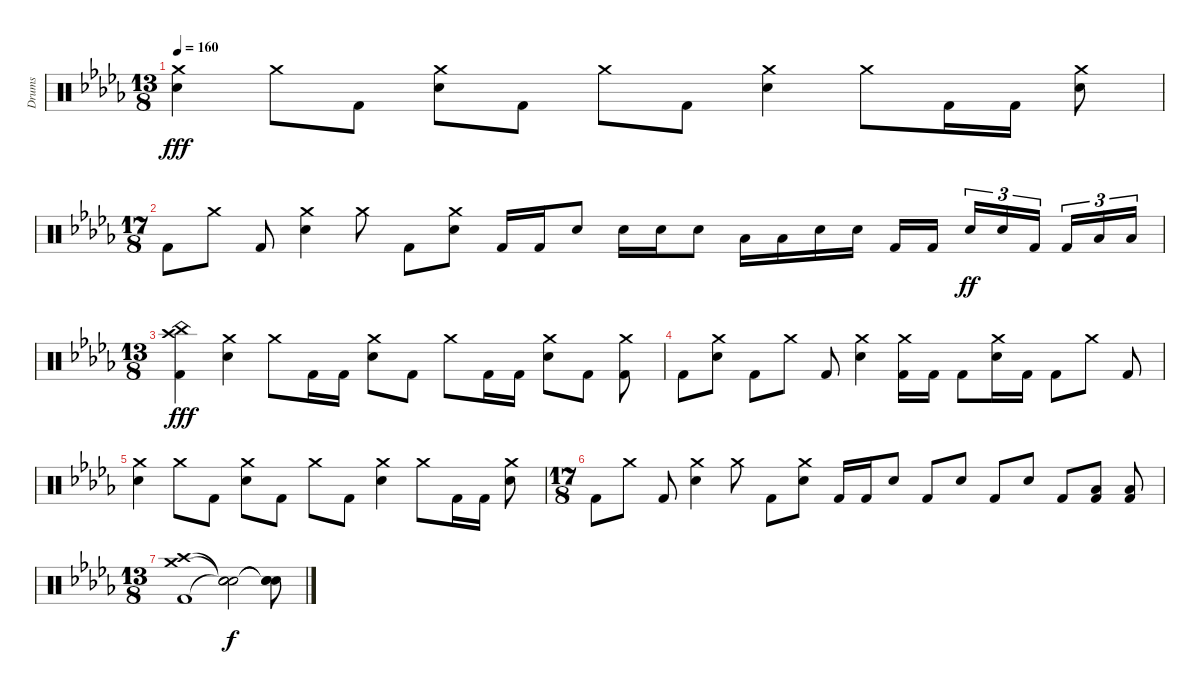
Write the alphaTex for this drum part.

\track ("Drums" "Drums") {instrument percussion}
\staff {score}
\articulation defaults
\ts (13 8)
\tempo 160
\clef neutral
\ks bbminor
("Crash medium (hit)" "Snare (hit) 2").4{dy fff} "Crash medium (hit)".8 "Kick (hit) 2".8 ("Crash medium (hit)" "Snare (hit) 2").8 "Kick (hit) 2".8 "Crash medium (hit)".8 "Kick (hit) 2".8 ("Crash medium (hit)" "Snare (hit) 2").4 "Crash medium (hit)".8 "Kick (hit) 2".16 "Kick (hit) 2".16 ("Crash medium (hit)" "Snare (hit) 2").8 |
\ts (17 8)
"Kick (hit) 2".8 "Crash medium (hit)".8 "Kick (hit) 2".8 ("Crash medium (hit)" "Snare (hit) 2").4 "Crash medium (hit)".8 "Kick (hit) 2".8 ("Crash medium (hit)" "Snare (hit) 2").8 "Kick (hit) 2".16 "Kick (hit) 2".16 "Snare (hit) 2".8 "Snare (hit) 2".16 "Snare (hit) 2".16 "Snare (hit) 2".8 "Low Floor Tom (hit)".16 "Low Floor Tom (hit)".16 "Snare (hit) 2".16 "Snare (hit) 2".16 "Kick (hit) 2".16 "Kick (hit) 2".16 "Snare (hit) 2".16{tu (3 2) dy ff} "Snare (hit) 2".16{tu (3 2)} "Kick (hit) 2".16{tu (3 2)} "Kick (hit) 2".16{tu (3 2)} "Low Floor Tom (hit)".16{tu (3 2)} "Low Floor Tom (hit)".16{tu (3 2)} |
\ts (13 8)
("Crash high (hit)" "China (hit)" "Kick (hit) 2").4{dy fff} ("Crash medium (hit)" "Snare (hit) 2").4 "Crash medium (hit)".8 "Kick (hit) 2".16 "Kick (hit) 2".16 ("Crash medium (hit)" "Snare (hit) 2").8 "Kick (hit) 2".8 "Crash medium (hit)".8 "Kick (hit) 2".16 "Kick (hit) 2".16 ("Crash medium (hit)" "Snare (hit) 2").8 "Kick (hit) 2".8 ("Crash medium (hit)" "Kick (hit) 2").8 |
"Kick (hit) 2".8 ("Crash medium (hit)" "Snare (hit) 2").8 "Kick (hit) 2".8 "Crash medium (hit)".8 "Kick (hit) 2".8 ("Crash medium (hit)" "Snare (hit) 2").4 ("Crash medium (hit)" "Kick (hit) 2").16 "Kick (hit) 2".16 "Kick (hit) 2".8 ("Crash medium (hit)" "Snare (hit) 2").16 "Kick (hit) 2".16 "Kick (hit) 2".8 "Crash medium (hit)".8 "Kick (hit) 2".8 |
("Crash medium (hit)" "Snare (hit) 2").4 "Crash medium (hit)".8 "Kick (hit) 2".8 ("Crash medium (hit)" "Snare (hit) 2").8 "Kick (hit) 2".8 "Crash medium (hit)".8 "Kick (hit) 2".8 ("Crash medium (hit)" "Snare (hit) 2").4 "Crash medium (hit)".8 "Kick (hit) 2".16 "Kick (hit) 2".16 ("Crash medium (hit)" "Snare (hit) 2").8 |
\ts (17 8)
"Kick (hit) 2".8 "Crash medium (hit)".8 "Kick (hit) 2".8 ("Crash medium (hit)" "Snare (hit) 2").4 "Crash medium (hit)".8 "Kick (hit) 2".8 ("Crash medium (hit)" "Snare (hit) 2").8 "Kick (hit) 2".16 "Kick (hit) 2".16 "Snare (hit) 2".8 "Kick (hit) 2".8 "Snare (hit) 2".8 "Kick (hit) 2".8 "Snare (hit) 2".8 "Kick (hit) 2".8 ("Low Floor Tom (hit)" "Kick (hit) 2").8 ("Low Floor Tom (hit)" "Kick (hit) 2").8 |
\ts (13 8)
("Crash high (hit)" "Crash medium (hit)" "Kick (hit) 2").1 ("Snare (hit)"{t} "Snare (hit)"{t} "Snare (hit)"{t}).2{dy f} ("Snare (hit)"{t} "Snare (hit)"{t} "Snare (hit)"{t}).8
